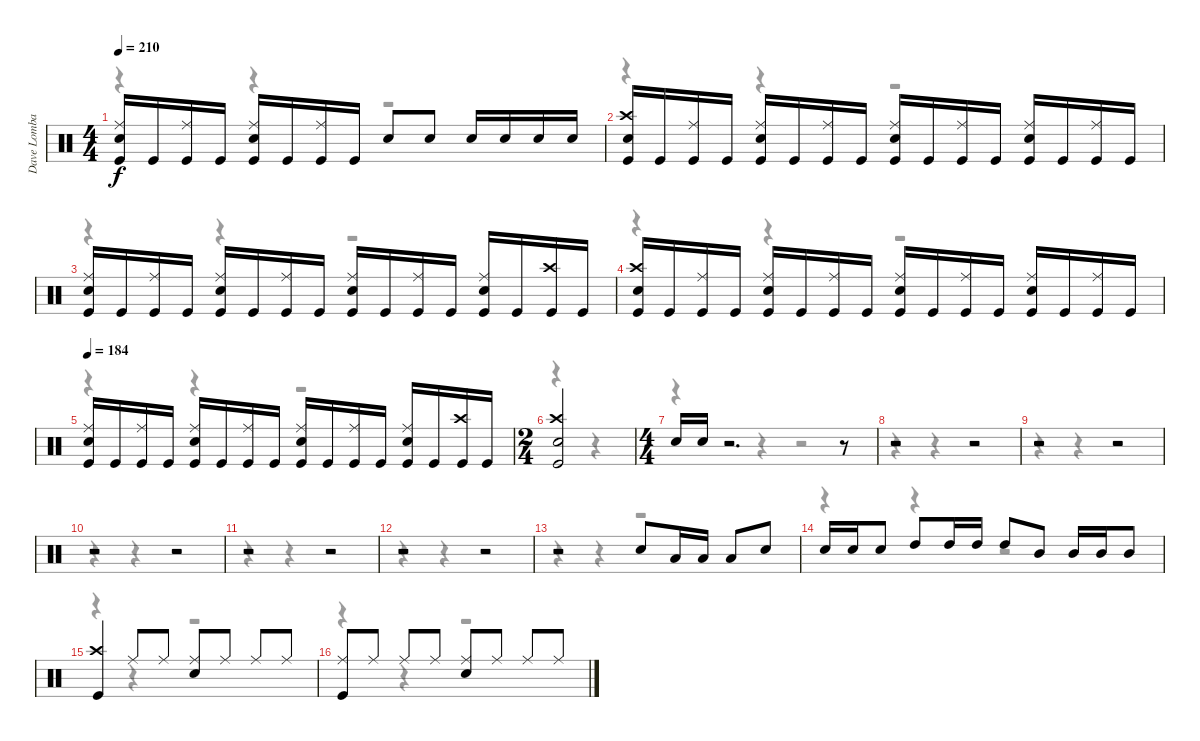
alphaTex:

\track ("Dave Lombardo" "Dave Lomba") {instrument percussion}
\staff {score}
\articulation defaults
\voice
\ts (4 4)
\tempo 210
\clef neutral
\ks c
("Ride (middle)" "Snare (hit) 2" "Kick (hit)").16{dy f} "Kick (hit)".16 ("Ride (middle)" "Kick (hit)").16 "Kick (hit)".16 ("Ride (middle)" "Snare (hit) 2" "Kick (hit)").16 "Kick (hit)".16 ("Ride (middle)" "Kick (hit)").16 "Kick (hit)".16 "Snare (hit) 2".8 "Snare (hit) 2".8 "Snare (hit) 2".16 "Snare (hit) 2".16 "Snare (hit) 2".16 "Snare (hit) 2".16 |
("Crash high (hit)" "Snare (hit) 2" "Kick (hit)").16 "Kick (hit)".16 ("Ride (middle)" "Kick (hit)").16 "Kick (hit)".16 ("Ride (middle)" "Snare (hit) 2" "Kick (hit)").16 "Kick (hit)".16 ("Ride (middle)" "Kick (hit)").16 "Kick (hit)".16 ("Ride (middle)" "Snare (hit) 2" "Kick (hit)").16 "Kick (hit)".16 ("Ride (middle)" "Kick (hit)").16 "Kick (hit)".16 ("Ride (middle)" "Snare (hit) 2" "Kick (hit)").16 "Kick (hit)".16 ("Ride (middle)" "Kick (hit)").16 "Kick (hit)".16 |
("Ride (middle)" "Snare (hit) 2" "Kick (hit)").16 "Kick (hit)".16 ("Ride (middle)" "Kick (hit)").16 "Kick (hit)".16 ("Ride (middle)" "Snare (hit) 2" "Kick (hit)").16 "Kick (hit)".16 ("Ride (middle)" "Kick (hit)").16 "Kick (hit)".16 ("Ride (middle)" "Snare (hit) 2" "Kick (hit)").16 "Kick (hit)".16 ("Ride (middle)" "Kick (hit)").16 "Kick (hit)".16 ("Ride (middle)" "Snare (hit) 2" "Kick (hit)").16 "Kick (hit)".16 ("Crash high (hit)" "Kick (hit)").16 "Kick (hit)".16 |
("Crash high (hit)" "Snare (hit) 2" "Kick (hit)").16 "Kick (hit)".16 ("Ride (middle)" "Kick (hit)").16 "Kick (hit)".16 ("Ride (middle)" "Snare (hit) 2" "Kick (hit)").16 "Kick (hit)".16 ("Ride (middle)" "Kick (hit)").16 "Kick (hit)".16 ("Ride (middle)" "Snare (hit) 2" "Kick (hit)").16 "Kick (hit)".16 ("Ride (middle)" "Kick (hit)").16 "Kick (hit)".16 ("Ride (middle)" "Snare (hit) 2" "Kick (hit)").16 "Kick (hit)".16 ("Ride (middle)" "Kick (hit)").16 "Kick (hit)".16 |
\tempo 184
("Ride (middle)" "Snare (hit) 2" "Kick (hit)").16 "Kick (hit)".16 ("Ride (middle)" "Kick (hit)").16 "Kick (hit)".16 ("Ride (middle)" "Snare (hit) 2" "Kick (hit)").16 "Kick (hit)".16 ("Ride (middle)" "Kick (hit)").16 "Kick (hit)".16 ("Ride (middle)" "Snare (hit) 2" "Kick (hit)").16 "Kick (hit)".16 ("Ride (middle)" "Kick (hit)").16 "Kick (hit)".16 ("Ride (middle)" "Snare (hit) 2" "Kick (hit)").16 "Kick (hit)".16 ("Crash high (hit)" "Kick (hit)").16 "Kick (hit)".16 |
\ts (2 4)
("Crash high (hit)" "Snare (hit) 2" "Kick (hit)").2 |
\ts (4 4)
"Snare (hit) 2".16 "Snare (hit) 2".16 r.2{d} r.8 |
r.2 r.2 |
r.2 r.2 |
r.2 r.2 |
r.2 r.2 |
r.2 r.2 |
r.2 "Snare (hit) 2".8 "Low Tom (hit)".16 "Low Tom (hit)".16 "Low Tom (hit)".8 "Snare (hit) 2".8 |
"Snare (hit) 2".16 "Snare (hit) 2".16 "Snare (hit) 2".8 "High Tom (hit)".8 "High Tom (hit)".16 "High Tom (hit)".16 "High Tom (hit)".8 "Mid Tom (hit)".8 "Mid Tom (hit)".16 "Mid Tom (hit)".16 "Mid Tom (hit)".8 |
("Crash high (hit)" "Kick (hit)").4 "Ride (middle)".8 "Ride (middle)".8 ("Ride (middle)" "Snare (hit) 2").8 "Ride (middle)".8 "Ride (middle)".8 "Ride (middle)".8 |
("Ride (middle)" "Kick (hit)").8 "Ride (middle)".8 "Ride (middle)".8 "Ride (middle)".8 ("Ride (middle)" "Snare (hit) 2").8 "Ride (middle)".8 "Ride (middle)".8 "Ride (middle)".8
\voice
\clef neutral
\ottava regular
\simile none
\ks c
r.4{dy f} r.4 r.2 |
r.4 r.4 r.2 |
r.4 r.4 r.2 |
r.4 r.4 r.2 |
r.4 r.4 r.2 |
r.4 r.4 |
r.4 r.4 r.2 |
r.4 r.4 r.2 |
r.4 r.4 r.2 |
r.4 r.4 r.2 |
r.4 r.4 r.2 |
r.4 r.4 r.2 |
r.4 r.4 r.2 |
r.4 r.4 r.2 |
r.4 r.4 r.2 |
r.4 r.4 r.2
